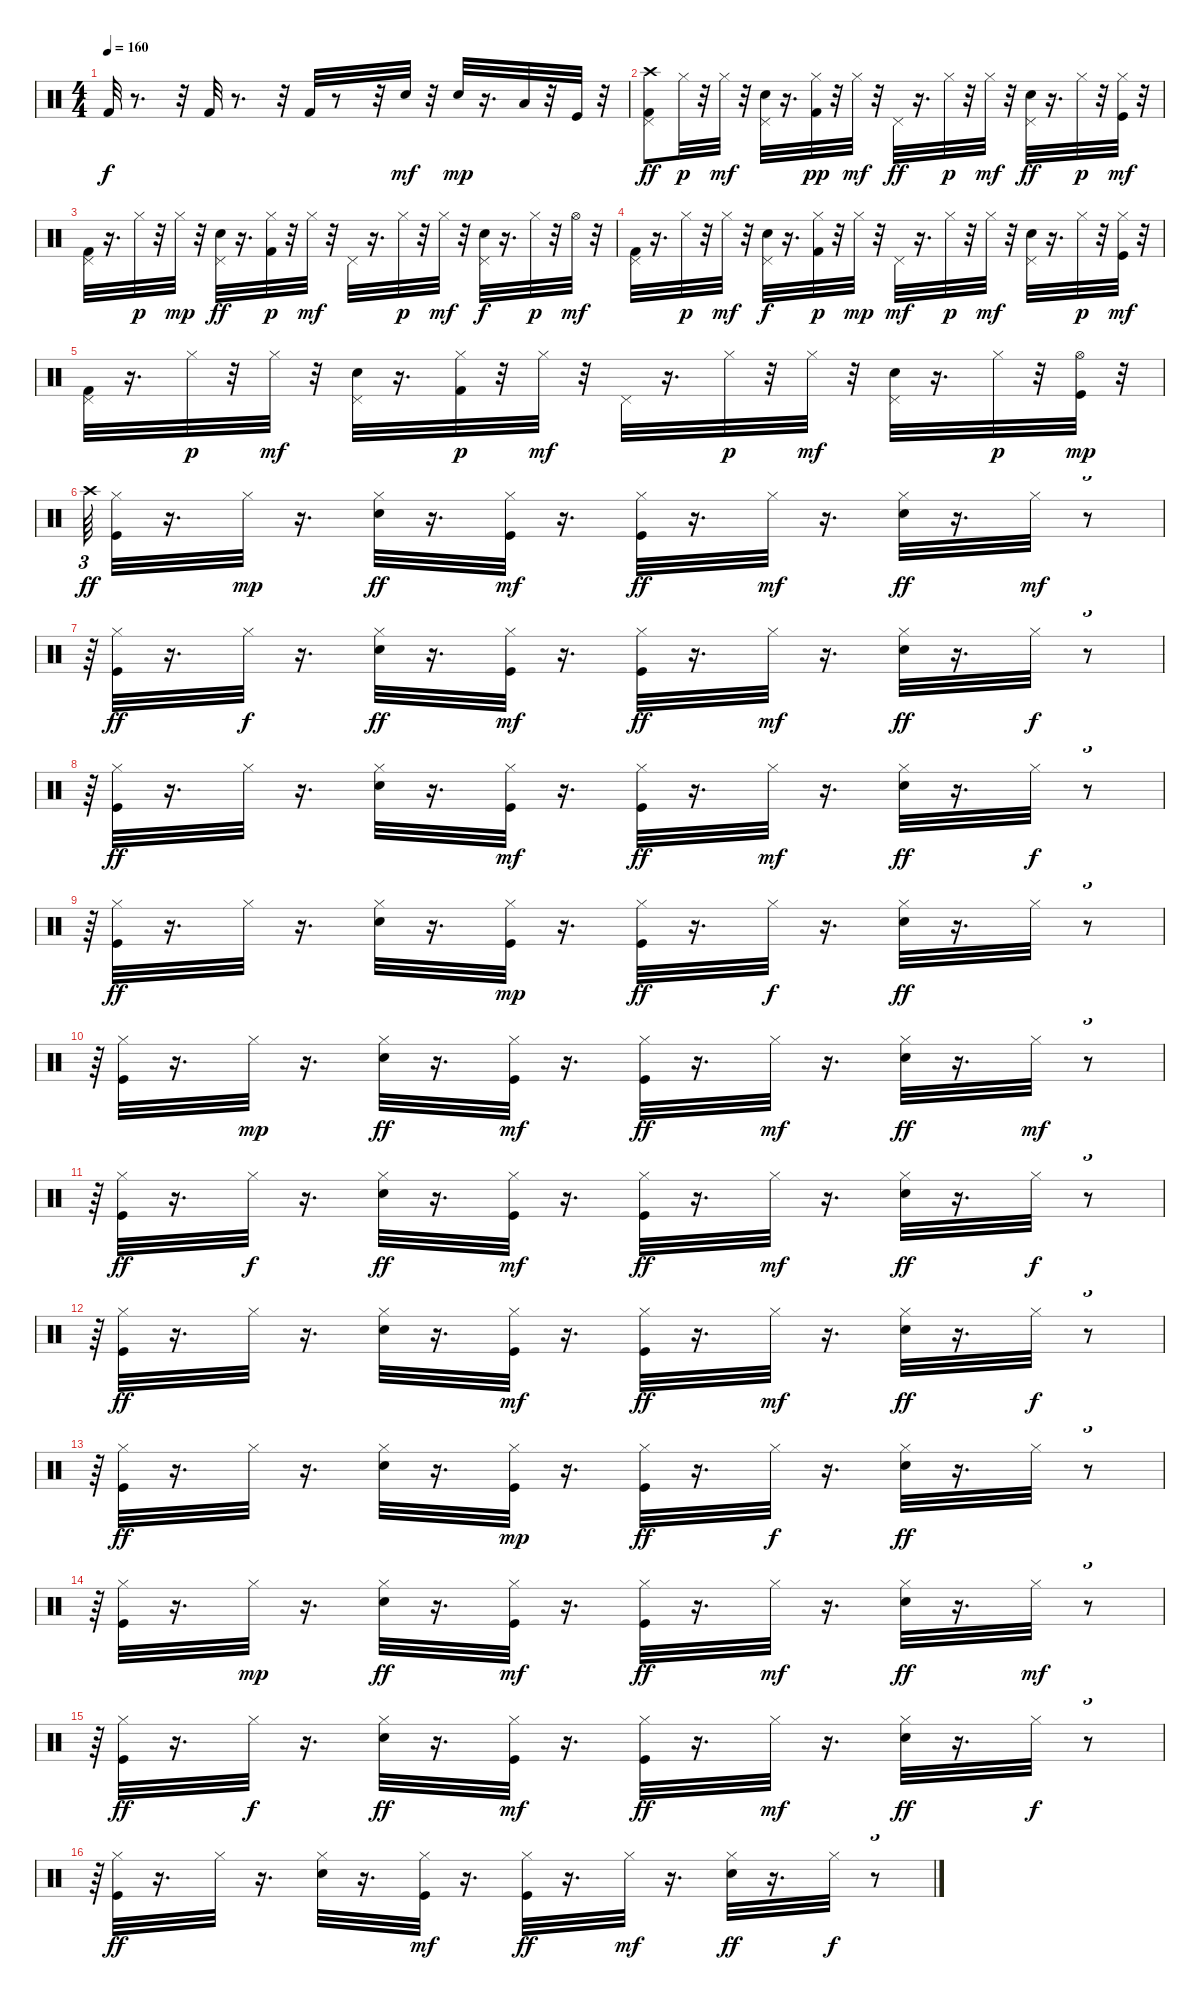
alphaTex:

\track "" {instrument percussion}
\staff {score}
\articulation defaults
\ts (4 4)
\tempo 160
\clef neutral
\ks c "Kick (hit) 2".32{dy f}
r.8{d} r.32 "Kick (hit) 2".32 r.8{d} r.32 "Kick (hit) 2".32 r.8 r.32 "Snare (hit) 2".32{dy mf} r.32 "Electric Snare (hit)".32{dy mp} r.16{d} "Low Floor Tom (hit)".32 r.32 "Kick (hit)".32 r.32 |
("Kick (hit) 2" "Pedal Hi-Hat (hit)" "Crash high (hit)").8{dy ff} "Hi-Hat (closed)".32{dy p} r.32 "Hi-Hat (closed)".32{dy mf} r.32 ("Electric Snare (hit)" "Pedal Hi-Hat (hit)").32 r.16{d} ("Kick (hit) 2" "Hi-Hat (closed)").32{dy pp} r.32 "Hi-Hat (closed)".32{dy mf} r.32 "Pedal Hi-Hat (hit)".32{dy ff} r.16{d} "Hi-Hat (closed)".32{dy p} r.32 "Hi-Hat (closed)".32{dy mf} r.32 ("Electric Snare (hit)" "Pedal Hi-Hat (hit)").32{dy ff} r.16{d} "Hi-Hat (closed)".32{dy p} r.32 ("Kick (hit)" "Hi-Hat (closed)").32{dy mf} r.32 |
("Kick (hit) 2" "Pedal Hi-Hat (hit)").32 r.16{d} "Hi-Hat (closed)".32{dy p} r.32 "Hi-Hat (closed)".32{dy mp} r.32 ("Electric Snare (hit)" "Pedal Hi-Hat (hit)").32{dy ff} r.16{d} ("Kick (hit) 2" "Hi-Hat (closed)").32{dy p} r.32 "Hi-Hat (closed)".32{dy mf} r.32 "Pedal Hi-Hat (hit)".32 r.16{d} "Hi-Hat (closed)".32{dy p} r.32 "Hi-Hat (closed)".32{dy mf} r.32 ("Electric Snare (hit)" "Pedal Hi-Hat (hit)").32{dy f} r.16{d} "Hi-Hat (closed)".32{dy p} r.32 "Hi-Hat (open)".32{dy mf} r.32 |
("Kick (hit) 2" "Pedal Hi-Hat (hit)").32 r.16{d} "Hi-Hat (closed)".32{dy p} r.32 "Hi-Hat (closed)".32{dy mf} r.32 ("Electric Snare (hit)" "Pedal Hi-Hat (hit)").32{dy f} r.16{d} ("Kick (hit) 2" "Hi-Hat (closed)").32{dy p} r.32 "Hi-Hat (closed)".32{dy mp} r.32 "Pedal Hi-Hat (hit)".32{dy mf} r.16{d} "Hi-Hat (closed)".32{dy p} r.32 "Hi-Hat (closed)".32{dy mf} r.32 ("Electric Snare (hit)" "Pedal Hi-Hat (hit)").32 r.16{d} "Hi-Hat (closed)".32{dy p} r.32 ("Kick (hit)" "Hi-Hat (closed)").32{dy mf} r.32 |
("Kick (hit) 2" "Pedal Hi-Hat (hit)").32 r.16{d} "Hi-Hat (closed)".32{dy p} r.32 "Hi-Hat (closed)".32{dy mf} r.32 ("Electric Snare (hit)" "Pedal Hi-Hat (hit)").32 r.16{d} ("Kick (hit) 2" "Hi-Hat (closed)").32{dy p} r.32 "Hi-Hat (closed)".32{dy mf} r.32 "Pedal Hi-Hat (hit)".32 r.16{d} "Hi-Hat (closed)".32{dy p} r.32 "Hi-Hat (closed)".32{dy mf} r.32 ("Electric Snare (hit)" "Pedal Hi-Hat (hit)").32 r.16{d} "Hi-Hat (closed)".32{dy p} r.32 ("Kick (hit)" "Hi-Hat (open)").32{dy mp} r.32 |
"Crash high (hit)".64{tu (3 2) dy ff} ("Kick (hit)" "Hi-Hat (closed)").32 r.16{d} "Hi-Hat (closed)".32{dy mp} r.16{d} ("Hi-Hat (closed)" "Electric Snare (hit)").32{dy ff} r.16{d} ("Kick (hit)" "Hi-Hat (closed)").32{dy mf} r.16{d} ("Kick (hit)" "Hi-Hat (closed)").32{dy ff} r.16{d} "Hi-Hat (closed)".32{dy mf} r.16{d} ("Hi-Hat (closed)" "Electric Snare (hit)").32{dy ff} r.16{d} "Hi-Hat (closed)".32{dy mf} r.8{tu (3 2)} |
r.64{tu (3 2)} ("Kick (hit)" "Hi-Hat (closed)").32{dy ff} r.16{d} "Hi-Hat (closed)".32{dy f} r.16{d} ("Hi-Hat (closed)" "Electric Snare (hit)").32{dy ff} r.16{d} ("Kick (hit)" "Hi-Hat (closed)").32{dy mf} r.16{d} ("Kick (hit)" "Hi-Hat (closed)").32{dy ff} r.16{d} "Hi-Hat (closed)".32{dy mf} r.16{d} ("Hi-Hat (closed)" "Electric Snare (hit)").32{dy ff} r.16{d} "Hi-Hat (closed)".32{dy f} r.8{tu (3 2)} |
r.64{tu (3 2)} ("Kick (hit)" "Hi-Hat (closed)").32{dy ff} r.16{d} "Hi-Hat (closed)".32 r.16{d} ("Hi-Hat (closed)" "Electric Snare (hit)").32 r.16{d} ("Kick (hit)" "Hi-Hat (closed)").32{dy mf} r.16{d} ("Kick (hit)" "Hi-Hat (closed)").32{dy ff} r.16{d} "Hi-Hat (closed)".32{dy mf} r.16{d} ("Hi-Hat (closed)" "Electric Snare (hit)").32{dy ff} r.16{d} "Hi-Hat (closed)".32{dy f} r.8{tu (3 2)} |
r.64{tu (3 2)} ("Kick (hit)" "Hi-Hat (closed)").32{dy ff} r.16{d} "Hi-Hat (closed)".32 r.16{d} ("Hi-Hat (closed)" "Electric Snare (hit)").32 r.16{d} ("Kick (hit)" "Hi-Hat (closed)").32{dy mp} r.16{d} ("Kick (hit)" "Hi-Hat (closed)").32{dy ff} r.16{d} "Hi-Hat (closed)".32{dy f} r.16{d} ("Hi-Hat (closed)" "Electric Snare (hit)").32{dy ff} r.16{d} "Hi-Hat (closed)".32 r.8{tu (3 2)} |
r.64{tu (3 2)} ("Kick (hit)" "Hi-Hat (closed)").32 r.16{d} "Hi-Hat (closed)".32{dy mp} r.16{d} ("Hi-Hat (closed)" "Electric Snare (hit)").32{dy ff} r.16{d} ("Kick (hit)" "Hi-Hat (closed)").32{dy mf} r.16{d} ("Kick (hit)" "Hi-Hat (closed)").32{dy ff} r.16{d} "Hi-Hat (closed)".32{dy mf} r.16{d} ("Hi-Hat (closed)" "Electric Snare (hit)").32{dy ff} r.16{d} "Hi-Hat (closed)".32{dy mf} r.8{tu (3 2)} |
r.64{tu (3 2)} ("Kick (hit)" "Hi-Hat (closed)").32{dy ff} r.16{d} "Hi-Hat (closed)".32{dy f} r.16{d} ("Hi-Hat (closed)" "Electric Snare (hit)").32{dy ff} r.16{d} ("Kick (hit)" "Hi-Hat (closed)").32{dy mf} r.16{d} ("Kick (hit)" "Hi-Hat (closed)").32{dy ff} r.16{d} "Hi-Hat (closed)".32{dy mf} r.16{d} ("Hi-Hat (closed)" "Electric Snare (hit)").32{dy ff} r.16{d} "Hi-Hat (closed)".32{dy f} r.8{tu (3 2)} |
r.64{tu (3 2)} ("Kick (hit)" "Hi-Hat (closed)").32{dy ff} r.16{d} "Hi-Hat (closed)".32 r.16{d} ("Hi-Hat (closed)" "Electric Snare (hit)").32 r.16{d} ("Kick (hit)" "Hi-Hat (closed)").32{dy mf} r.16{d} ("Kick (hit)" "Hi-Hat (closed)").32{dy ff} r.16{d} "Hi-Hat (closed)".32{dy mf} r.16{d} ("Hi-Hat (closed)" "Electric Snare (hit)").32{dy ff} r.16{d} "Hi-Hat (closed)".32{dy f} r.8{tu (3 2)} |
r.64{tu (3 2)} ("Kick (hit)" "Hi-Hat (closed)").32{dy ff} r.16{d} "Hi-Hat (closed)".32 r.16{d} ("Hi-Hat (closed)" "Electric Snare (hit)").32 r.16{d} ("Kick (hit)" "Hi-Hat (closed)").32{dy mp} r.16{d} ("Kick (hit)" "Hi-Hat (closed)").32{dy ff} r.16{d} "Hi-Hat (closed)".32{dy f} r.16{d} ("Hi-Hat (closed)" "Electric Snare (hit)").32{dy ff} r.16{d} "Hi-Hat (closed)".32 r.8{tu (3 2)} |
r.64{tu (3 2)} ("Kick (hit)" "Hi-Hat (closed)").32 r.16{d} "Hi-Hat (closed)".32{dy mp} r.16{d} ("Hi-Hat (closed)" "Electric Snare (hit)").32{dy ff} r.16{d} ("Kick (hit)" "Hi-Hat (closed)").32{dy mf} r.16{d} ("Kick (hit)" "Hi-Hat (closed)").32{dy ff} r.16{d} "Hi-Hat (closed)".32{dy mf} r.16{d} ("Hi-Hat (closed)" "Electric Snare (hit)").32{dy ff} r.16{d} "Hi-Hat (closed)".32{dy mf} r.8{tu (3 2)} |
r.64{tu (3 2)} ("Kick (hit)" "Hi-Hat (closed)").32{dy ff} r.16{d} "Hi-Hat (closed)".32{dy f} r.16{d} ("Hi-Hat (closed)" "Electric Snare (hit)").32{dy ff} r.16{d} ("Kick (hit)" "Hi-Hat (closed)").32{dy mf} r.16{d} ("Kick (hit)" "Hi-Hat (closed)").32{dy ff} r.16{d} "Hi-Hat (closed)".32{dy mf} r.16{d} ("Hi-Hat (closed)" "Electric Snare (hit)").32{dy ff} r.16{d} "Hi-Hat (closed)".32{dy f} r.8{tu (3 2)} |
r.64{tu (3 2)} ("Kick (hit)" "Hi-Hat (closed)").32{dy ff} r.16{d} "Hi-Hat (closed)".32 r.16{d} ("Hi-Hat (closed)" "Electric Snare (hit)").32 r.16{d} ("Kick (hit)" "Hi-Hat (closed)").32{dy mf} r.16{d} ("Kick (hit)" "Hi-Hat (closed)").32{dy ff} r.16{d} "Hi-Hat (closed)".32{dy mf} r.16{d} ("Hi-Hat (closed)" "Electric Snare (hit)").32{dy ff} r.16{d} "Hi-Hat (closed)".32{dy f} r.8{tu (3 2)}
